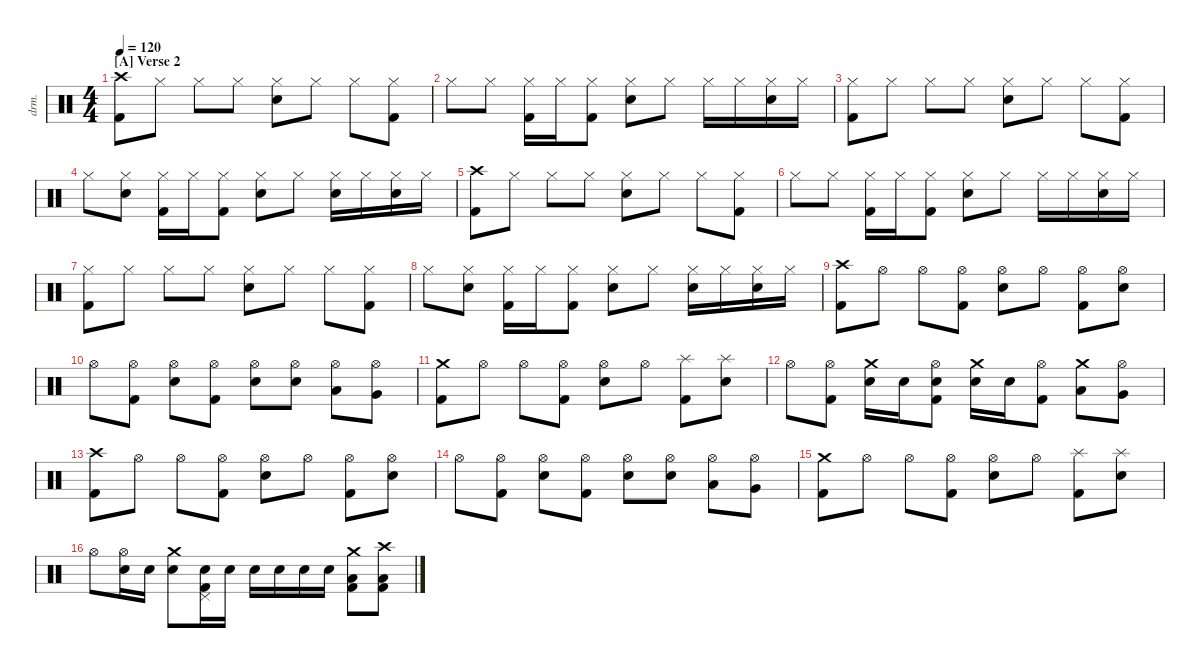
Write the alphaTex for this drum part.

\defaultSystemsLayout 4
\hideDynamics
\bracketExtendMode nobrackets
\track ("Drumkit" "drm.") {instrument percussion}
\staff {score}
\articulation defaults
\ts (4 4)
\section ("A" "Verse 2")
\tempo 120
\clef neutral
\ks c
("Crash high (hit)" "Kick (hit) 2").8{dy mf beam Down} "Hi-Hat (closed)".8{beam Down} "Hi-Hat (closed)".8{beam Down} "Hi-Hat (closed)".8{beam Down} ("Hi-Hat (closed)" "Snare (hit) 2").8{beam Down} "Hi-Hat (closed)".8{beam Down} "Hi-Hat (closed)".8{beam Down} ("Hi-Hat (closed)" "Kick (hit) 2").8{beam Down} |
"Hi-Hat (closed)".8{beam Down} "Hi-Hat (closed)".8{beam Down} ("Hi-Hat (closed)" "Kick (hit) 2").16{beam Down} "Hi-Hat (closed)".16{beam Down} ("Hi-Hat (closed)" "Kick (hit) 2").8{beam Down} ("Hi-Hat (closed)" "Snare (hit) 2").8{beam Down} "Hi-Hat (closed)".8{beam Down} "Hi-Hat (closed)".16{beam Down} "Hi-Hat (closed)".16{beam Down} ("Hi-Hat (closed)" "Snare (hit) 2").16{dy p beam Down} "Hi-Hat (closed)".16{beam Down} |
("Hi-Hat (closed)" "Kick (hit) 2").8{dy mf beam Down} "Hi-Hat (closed)".8{beam Down} "Hi-Hat (closed)".8{beam Down} "Hi-Hat (closed)".8{beam Down} ("Hi-Hat (closed)" "Snare (hit) 2").8{beam Down} "Hi-Hat (closed)".8{beam Down} "Hi-Hat (closed)".8{beam Down} ("Hi-Hat (closed)" "Kick (hit) 2").8{beam Down} |
"Hi-Hat (closed)".8{beam Down} ("Hi-Hat (closed)" "Snare (hit) 2").8{beam Down} ("Hi-Hat (closed)" "Kick (hit) 2").16{beam Down} "Hi-Hat (closed)".16{beam Down} ("Hi-Hat (closed)" "Kick (hit) 2").8{beam Down} ("Hi-Hat (closed)" "Snare (hit) 2").8{beam Down} "Hi-Hat (closed)".8{beam Down} ("Hi-Hat (closed)" "Snare (hit) 2").16{beam Down} "Hi-Hat (closed)".16{beam Down} ("Hi-Hat (closed)" "Snare (hit) 2").16{dy p beam Down} "Hi-Hat (closed)".16{beam Down} |
("Crash high (hit)" "Kick (hit) 2").8{dy mf beam Down} "Hi-Hat (closed)".8{beam Down} "Hi-Hat (closed)".8{beam Down} "Hi-Hat (closed)".8{beam Down} ("Hi-Hat (closed)" "Snare (hit) 2").8{beam Down} "Hi-Hat (closed)".8{beam Down} "Hi-Hat (closed)".8{beam Down} ("Hi-Hat (closed)" "Kick (hit) 2").8{beam Down} |
"Hi-Hat (closed)".8{beam Down} "Hi-Hat (closed)".8{beam Down} ("Hi-Hat (closed)" "Kick (hit) 2").16{beam Down} "Hi-Hat (closed)".16{beam Down} ("Hi-Hat (closed)" "Kick (hit) 2").8{beam Down} ("Hi-Hat (closed)" "Snare (hit) 2").8{beam Down} "Hi-Hat (closed)".8{beam Down} "Hi-Hat (closed)".16{beam Down} "Hi-Hat (closed)".16{beam Down} ("Hi-Hat (closed)" "Snare (hit) 2").16{dy p beam Down} "Hi-Hat (closed)".16{beam Down} |
("Hi-Hat (closed)" "Kick (hit) 2").8{dy mf beam Down} "Hi-Hat (closed)".8{beam Down} "Hi-Hat (closed)".8{beam Down} "Hi-Hat (closed)".8{beam Down} ("Hi-Hat (closed)" "Snare (hit) 2").8{beam Down} "Hi-Hat (closed)".8{beam Down} "Hi-Hat (closed)".8{beam Down} ("Hi-Hat (closed)" "Kick (hit) 2").8{beam Down} |
"Hi-Hat (closed)".8{beam Down} ("Hi-Hat (closed)" "Snare (hit) 2").8{beam Down} ("Hi-Hat (closed)" "Kick (hit) 2").16{beam Down} "Hi-Hat (closed)".16{beam Down} ("Hi-Hat (closed)" "Kick (hit) 2").8{beam Down} ("Hi-Hat (closed)" "Snare (hit) 2").8{beam Down} "Hi-Hat (closed)".8{beam Down} ("Hi-Hat (closed)" "Snare (hit) 2").16{beam Down} "Hi-Hat (closed)".16{beam Down} ("Hi-Hat (closed)" "Snare (hit) 2").16{dy p beam Down} "Hi-Hat (closed)".16{beam Down} |
("Crash high (hit)" "Kick (hit) 2").8{dy mf beam Down} "Hi-Hat (open)".8{beam Down} "Hi-Hat (open)".8{beam Down} ("Hi-Hat (open)" "Kick (hit) 2").8{beam Down} ("Hi-Hat (open)" "Snare (hit) 2").8{beam Down} "Hi-Hat (open)".8{beam Down} ("Hi-Hat (open)" "Kick (hit) 2").8{beam Down} ("Hi-Hat (open)" "Snare (hit) 2").8{beam Down} |
"Hi-Hat (open)".8{beam Down} ("Hi-Hat (open)" "Kick (hit) 2").8{beam Down} ("Hi-Hat (open)" "Snare (hit) 2").8{beam Down} ("Hi-Hat (open)" "Kick (hit) 2").8{beam Down} ("Hi-Hat (open)" "Snare (hit) 2").8{beam Down} ("Hi-Hat (open)" "Snare (hit) 2").8{beam Down} ("Hi-Hat (open)" "Low Tom (hit)").8{beam Down} ("Hi-Hat (open)" "Very Low Tom (hit)").8{beam Down} |
("Crash medium (hit)" "Kick (hit) 2").8{beam Down} "Hi-Hat (open)".8{beam Down} "Hi-Hat (open)".8{beam Down} ("Hi-Hat (open)" "Kick (hit) 2").8{beam Down} ("Hi-Hat (open)" "Snare (hit) 2").8{beam Down} "Hi-Hat (open)".8{beam Down} ("Splash (hit)" "Kick (hit) 2").8{beam Down} ("Splash (hit)" "Snare (hit) 2").8{beam Down} |
"Hi-Hat (open)".8{beam Down} ("Hi-Hat (open)" "Kick (hit) 2").8{beam Down} ("Crash medium (hit)" "Snare (hit) 2").16{beam Down} "Snare (hit) 2".16{beam Down} ("Hi-Hat (open)" "Kick (hit) 2" "Snare (hit) 2").8{beam Down} ("Crash medium (hit)" "Snare (hit) 2").16{beam Down} "Snare (hit) 2".16{beam Down} ("Hi-Hat (open)" "Kick (hit) 2").8{beam Down} ("Crash medium (hit)" "Low Tom (hit)").8{beam Down} ("Hi-Hat (open)" "Very Low Tom (hit)").8{beam Down} |
("Crash high (hit)" "Kick (hit) 2").8{beam Down} "Hi-Hat (open)".8{beam Down} "Hi-Hat (open)".8{beam Down} ("Hi-Hat (open)" "Kick (hit) 2").8{beam Down} ("Hi-Hat (open)" "Snare (hit) 2").8{beam Down} "Hi-Hat (open)".8{beam Down} ("Hi-Hat (open)" "Kick (hit) 2").8{beam Down} ("Hi-Hat (open)" "Snare (hit) 2").8{beam Down} |
"Hi-Hat (open)".8{beam Down} ("Hi-Hat (open)" "Kick (hit) 2").8{beam Down} ("Hi-Hat (open)" "Snare (hit) 2").8{beam Down} ("Hi-Hat (open)" "Kick (hit) 2").8{beam Down} ("Hi-Hat (open)" "Snare (hit) 2").8{beam Down} ("Hi-Hat (open)" "Snare (hit) 2").8{beam Down} ("Hi-Hat (open)" "Low Tom (hit)").8{beam Down} ("Hi-Hat (open)" "Very Low Tom (hit)").8{beam Down} |
("Crash medium (hit)" "Kick (hit) 2").8{beam Down} "Hi-Hat (open)".8{beam Down} "Hi-Hat (open)".8{beam Down} ("Hi-Hat (open)" "Kick (hit) 2").8{beam Down} ("Hi-Hat (open)" "Snare (hit) 2").8{beam Down} "Hi-Hat (open)".8{beam Down} ("Splash (hit)" "Kick (hit) 2").8{beam Down} ("Splash (hit)" "Snare (hit) 2").8{beam Down} |
"Hi-Hat (open)".8{beam Down} ("Hi-Hat (open)" "Snare (hit) 2").16{beam Down} "Snare (hit) 2".16{beam Down} ("Crash medium (hit)" "Snare (hit) 2").8{beam Down} ("Pedal Hi-Hat (hit)" "Kick (hit) 2" "Snare (hit) 2").16{beam Down} "Snare (hit) 2".16{beam Down} "Snare (hit) 2".16{beam Down} "Snare (hit) 2".16{beam Down} "Snare (hit) 2".16{beam Down} "Snare (hit) 2".16{beam Down} ("Crash medium (hit)" "Kick (hit) 2" "Low Tom (hit)").8{beam Down} ("Crash high (hit)" "Low Tom (hit)" "Kick (hit) 2").8{beam Down}
